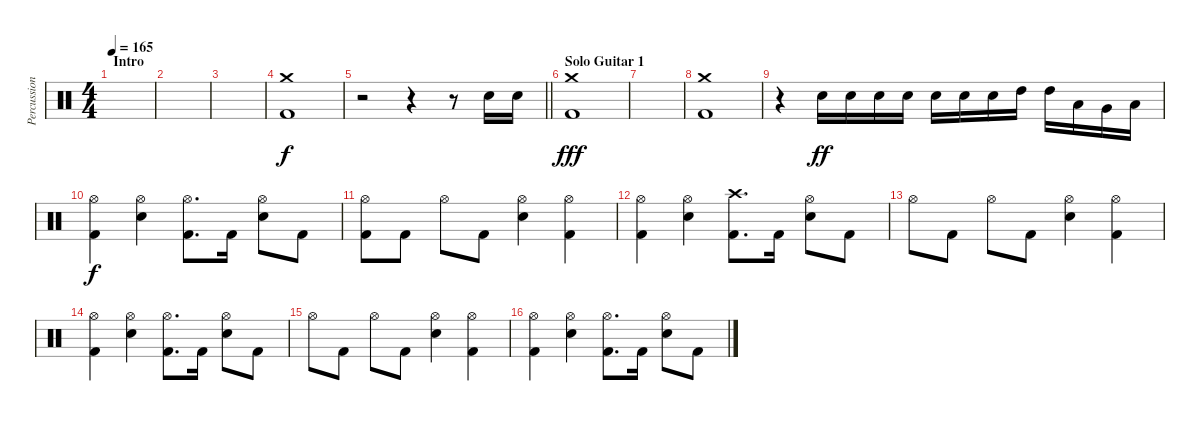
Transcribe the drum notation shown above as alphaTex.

\track ("Percussions" "Percussion") {instrument percussion}
\staff {score}
\articulation defaults
\ts (4 4)
\section ("" "Intro")
\tempo 165
\clef neutral
\ks c
|
|
|
("Crash medium (hit)" "Kick (hit) 2").1 |
\barLineRight lightlight
r.2 r.4 r.8 "Snare (hit) 2".16{dy f} "Snare (hit) 2".16 |
\section ("" "Solo Guitar 1")
("Crash medium (hit)" "Kick (hit) 2").1{dy fff} |
|
("Crash medium (hit)" "Kick (hit) 2").1 |
r.4 "Snare (hit) 2".16{dy ff} "Snare (hit) 2".16 "Snare (hit) 2".16 "Snare (hit) 2".16 "Snare (hit) 2".16 "Snare (hit) 2".16 "Snare (hit) 2".16 "High Tom (hit)".16 "High Tom (hit)".16 "Low Tom (hit)".16 "Very Low Tom (hit)".16 "Low Floor Tom (hit)".16 |
("Hi-Hat (open)" "Kick (hit) 2").4{dy f} ("Hi-Hat (open)" "Snare (hit) 2").4 ("Hi-Hat (open)" "Kick (hit) 2").8{d} "Kick (hit) 2".16 ("Hi-Hat (open)" "Snare (hit) 2").8 "Kick (hit) 2".8 |
("Hi-Hat (open)" "Kick (hit) 2").8 "Kick (hit) 2".8 "Hi-Hat (open)".8 "Kick (hit) 2".8 ("Hi-Hat (open)" "Snare (hit) 2").4 ("Hi-Hat (open)" "Kick (hit) 2").4 |
("Hi-Hat (open)" "Kick (hit) 2").4 ("Hi-Hat (open)" "Snare (hit) 2").4 ("Crash high (hit)" "Kick (hit) 2").8{d} "Kick (hit) 2".16 ("Hi-Hat (open)" "Snare (hit) 2").8 "Kick (hit) 2".8 |
"Hi-Hat (open)".8 "Kick (hit) 2".8 "Hi-Hat (open)".8 "Kick (hit) 2".8 ("Hi-Hat (open)" "Snare (hit) 2").4 ("Hi-Hat (open)" "Kick (hit) 2").4 |
("Hi-Hat (open)" "Kick (hit) 2").4 ("Hi-Hat (open)" "Snare (hit) 2").4 ("Hi-Hat (open)" "Kick (hit) 2").8{d} "Kick (hit) 2".16 ("Hi-Hat (open)" "Snare (hit) 2").8 "Kick (hit) 2".8 |
"Hi-Hat (open)".8 "Kick (hit) 2".8 "Hi-Hat (open)".8 "Kick (hit) 2".8 ("Hi-Hat (open)" "Snare (hit) 2").4 ("Hi-Hat (open)" "Kick (hit) 2").4 |
("Hi-Hat (open)" "Kick (hit) 2").4 ("Hi-Hat (open)" "Snare (hit) 2").4 ("Hi-Hat (open)" "Kick (hit) 2").8{d} "Kick (hit) 2".16 ("Hi-Hat (open)" "Snare (hit) 2").8 "Kick (hit) 2".8
